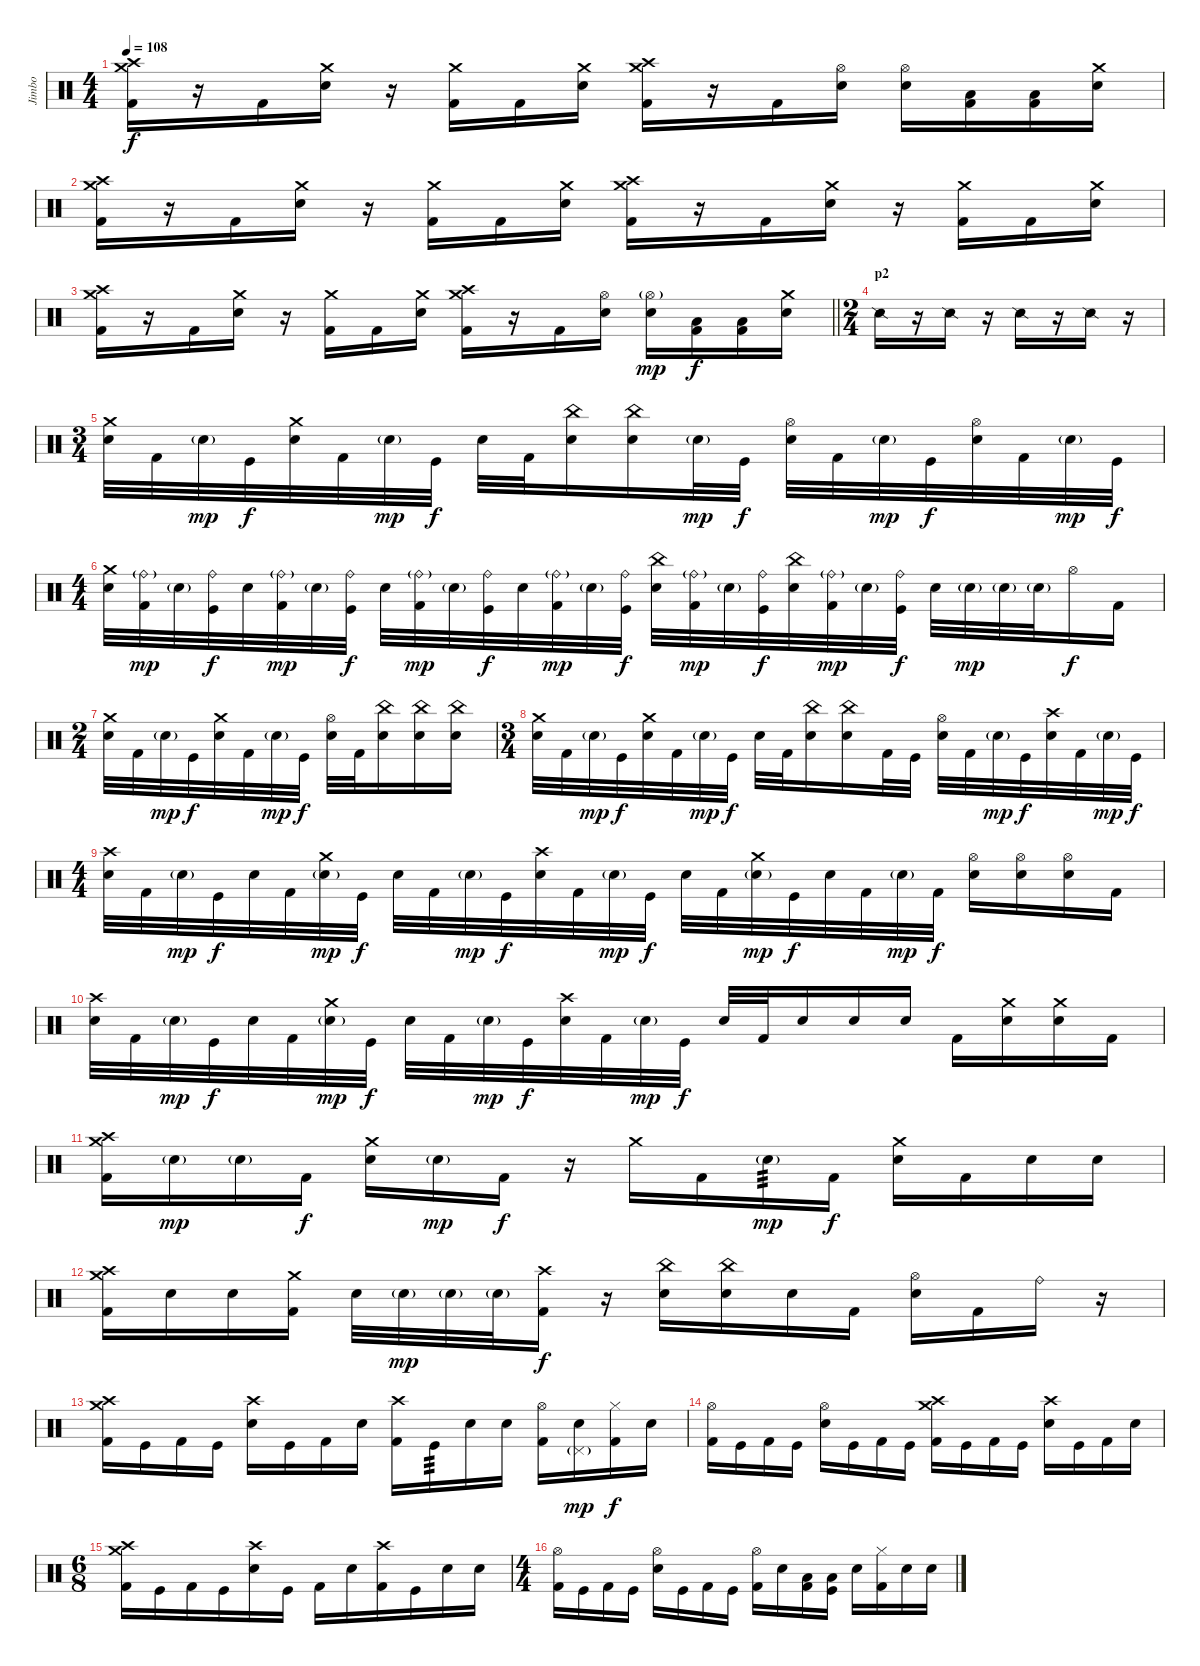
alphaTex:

\track ("Jimbo" "Jimbo") {instrument percussion}
\staff
\articulation defaults
\ts (4 4)
\tempo 108
\clef neutral
\ks c
("Kick (hit) 2" "Crash medium (hit)" "Crash high (hit)").16{dy f} r.16 "Kick (hit) 2".16 ("Electric Snare (hit)" "Crash medium (hit)").16 r.16 ("Kick (hit) 2" "Crash medium (hit)").16 "Kick (hit) 2".16 ("Electric Snare (hit)" "Crash medium (hit)").16 ("Kick (hit) 2" "Crash medium (hit)" "Crash high (hit)").16 r.16 "Kick (hit) 2".16 ("Electric Snare (hit)" "Hi-Hat (open)").16 ("Electric Snare (hit)" "Hi-Hat (open)").16 ("Kick (hit) 2" "Low Tom (hit)").16 ("Kick (hit) 2" "Low Floor Tom (hit)").16 ("Electric Snare (hit)" "Crash medium (hit)").16 |
("Kick (hit) 2" "Crash medium (hit)" "Crash high (hit)").16 r.16 "Kick (hit) 2".16 ("Electric Snare (hit)" "Crash medium (hit)").16 r.16 ("Kick (hit) 2" "Crash medium (hit)").16 "Kick (hit) 2".16 ("Electric Snare (hit)" "Crash medium (hit)").16 ("Kick (hit) 2" "Crash medium (hit)" "Crash high (hit)").16 r.16 "Kick (hit) 2".16 ("Electric Snare (hit)" "Crash medium (hit)").16 r.16 ("Kick (hit) 2" "Crash medium (hit)").16 "Kick (hit) 2".16 ("Electric Snare (hit)" "Crash medium (hit)").16 |
\barLineRight lightlight
("Kick (hit) 2" "Crash medium (hit)" "Crash high (hit)").16 r.16 "Kick (hit) 2".16 ("Electric Snare (hit)" "Crash medium (hit)").16 r.16 ("Kick (hit) 2" "Crash medium (hit)").16 "Kick (hit) 2".16 ("Electric Snare (hit)" "Crash medium (hit)").16 ("Kick (hit) 2" "Crash medium (hit)" "Crash high (hit)").16 r.16 "Kick (hit) 2".16 ("Electric Snare (hit)" "Hi-Hat (open)").16 ("Electric Snare (hit)" "Hi-Hat (open)"{g}).16{dy mp} ("Kick (hit) 2" "Low Tom (hit)").16{dy f} ("Kick (hit) 2" "Low Floor Tom (hit)").16 ("Electric Snare (hit)" "Crash medium (hit)").16 |
\ts (2 4)
\section ("" "p2")
"Snare (side stick) 2".16 r.16 "Snare (side stick) 2".16 r.16 "Snare (side stick) 2".16 r.16 "Snare (side stick) 2".16 r.16 |
\ts (3 4)
("Electric Snare (hit)" "Crash medium (hit)").32 "Kick (hit) 2".32 "Electric Snare (hit)"{g}.32{dy mp} "Kick (hit)".32{dy f} ("Electric Snare (hit)" "Crash medium (hit)").32 "Kick (hit) 2".32 "Electric Snare (hit)"{g}.32{dy mp} "Kick (hit)".32{dy f} "Electric Snare (hit)".32 "Kick (hit) 2".32 ("Electric Snare (hit)" "China (hit)").16 ("Electric Snare (hit)" "China (hit)").16 "Electric Snare (hit)"{g}.32{dy mp} "Kick (hit)".32{dy f} ("Electric Snare (hit)" "Hi-Hat (open)").32 "Kick (hit) 2".32 "Electric Snare (hit)"{g}.32{dy mp} "Kick (hit)".32{dy f} ("Electric Snare (hit)" "Hi-Hat (open)").32 "Kick (hit) 2".32 "Electric Snare (hit)"{g}.32{dy mp} "Kick (hit)".32{dy f} |
\ts (4 4)
("Electric Snare (hit)" "Crash medium (hit)").32 ("Kick (hit) 2" "Ride (bell)"{g}).32{dy mp} "Electric Snare (hit)"{g}.32 ("Kick (hit)" "Ride (bell)").32{dy f} "Electric Snare (hit)".32 ("Kick (hit) 2" "Ride (bell)"{g}).32{dy mp} "Electric Snare (hit)"{g}.32 ("Kick (hit)" "Ride (bell)").32{dy f} "Electric Snare (hit)".32 ("Kick (hit) 2" "Ride (bell)"{g}).32{dy mp} "Electric Snare (hit)"{g}.32 ("Kick (hit)" "Ride (bell)").32{dy f} "Electric Snare (hit)".32 ("Kick (hit) 2" "Ride (bell)"{g}).32{dy mp} "Electric Snare (hit)"{g}.32 ("Kick (hit)" "Ride (bell)").32{dy f} ("Electric Snare (hit)" "China (hit)").32 ("Kick (hit) 2" "Ride (bell)"{g}).32{dy mp} "Electric Snare (hit)"{g}.32 ("Kick (hit)" "Ride (bell)").32{dy f} ("Electric Snare (hit)" "China (hit)").32 ("Kick (hit) 2" "Ride (bell)"{g}).32{dy mp} "Electric Snare (hit)"{g}.32 ("Kick (hit)" "Ride (bell)").32{dy f} "Electric Snare (hit)".32 "Electric Snare (hit)"{g}.32{dy mp} "Electric Snare (hit)"{g}.32 "Electric Snare (hit)"{g}.32 "Hi-Hat (open)".16{dy f} "Kick (hit) 2".16 |
\ts (2 4)
("Electric Snare (hit)" "Crash medium (hit)").32 "Kick (hit) 2".32 "Electric Snare (hit)"{g}.32{dy mp} "Kick (hit)".32{dy f} ("Electric Snare (hit)" "Crash medium (hit)").32 "Kick (hit) 2".32 "Electric Snare (hit)"{g}.32{dy mp} "Kick (hit)".32{dy f} ("Electric Snare (hit)" "Hi-Hat (open)").32 "Kick (hit) 2".32 ("Electric Snare (hit)" "China (hit)").16 ("Electric Snare (hit)" "China (hit)").16 ("Electric Snare (hit)" "China (hit)").16 |
\ts (3 4)
("Electric Snare (hit)" "Crash medium (hit)").32 "Kick (hit) 2".32 "Electric Snare (hit)"{g}.32{dy mp} "Kick (hit)".32{dy f} ("Electric Snare (hit)" "Crash medium (hit)").32 "Kick (hit) 2".32 "Electric Snare (hit)"{g}.32{dy mp} "Kick (hit)".32{dy f} "Electric Snare (hit)".32 "Kick (hit) 2".32 ("Electric Snare (hit)" "China (hit)").16 ("Electric Snare (hit)" "China (hit)").16 "Kick (hit) 2".32 "Kick (hit)".32 ("Electric Snare (hit)" "Hi-Hat (open)").32 "Kick (hit) 2".32 "Electric Snare (hit)"{g}.32{dy mp} "Kick (hit)".32{dy f} ("Electric Snare (hit)" "Crash high (hit)").32 "Kick (hit) 2".32 "Electric Snare (hit)"{g}.32{dy mp} "Kick (hit)".32{dy f} |
\ts (4 4)
("Electric Snare (hit)" "Crash high (hit)").32 "Kick (hit) 2".32 "Electric Snare (hit)"{g}.32{dy mp} "Kick (hit)".32{dy f} "Electric Snare (hit)".32 "Kick (hit) 2".32 ("Electric Snare (hit)"{g} "Crash medium (hit)").32{dy mp} "Kick (hit)".32{dy f} "Electric Snare (hit)".32 "Kick (hit) 2".32 "Electric Snare (hit)"{g}.32{dy mp} "Kick (hit)".32{dy f} ("Electric Snare (hit)" "Crash high (hit)").32 "Kick (hit) 2".32 "Electric Snare (hit)"{g}.32{dy mp} "Kick (hit)".32{dy f} "Electric Snare (hit)".32 "Kick (hit) 2".32 ("Electric Snare (hit)"{g} "Crash medium (hit)").32{dy mp} "Kick (hit)".32{dy f} "Electric Snare (hit)".32 "Kick (hit) 2".32 "Electric Snare (hit)"{g}.32{dy mp} "Kick (hit) 2".32{dy f} ("Electric Snare (hit)" "Hi-Hat (open)").16 ("Electric Snare (hit)" "Hi-Hat (open)").16 ("Electric Snare (hit)" "Hi-Hat (open)").16 "Kick (hit) 2".16 |
("Electric Snare (hit)" "Crash high (hit)").32 "Kick (hit) 2".32 "Electric Snare (hit)"{g}.32{dy mp} "Kick (hit)".32{dy f} "Electric Snare (hit)".32 "Kick (hit) 2".32 ("Electric Snare (hit)"{g} "Crash medium (hit)").32{dy mp} "Kick (hit)".32{dy f} "Electric Snare (hit)".32 "Kick (hit) 2".32 "Electric Snare (hit)"{g}.32{dy mp} "Kick (hit)".32{dy f} ("Electric Snare (hit)" "Crash high (hit)").32 "Kick (hit) 2".32 "Electric Snare (hit)"{g}.32{dy mp} "Kick (hit)".32{dy f} "Electric Snare (hit)".32 "Kick (hit) 2".32 "Electric Snare (hit)".16 "Electric Snare (hit)".16 "Electric Snare (hit)".16 "Kick (hit) 2".16 ("Electric Snare (hit)" "Crash medium (hit)").16 ("Electric Snare (hit)" "Crash medium (hit)").16 "Kick (hit) 2".16 |
("Kick (hit) 2" "Crash medium (hit)" "Crash high (hit)").16 "Electric Snare (hit)"{g}.16{dy mp} "Electric Snare (hit)"{g}.16 "Kick (hit) 2".16{dy f} ("Electric Snare (hit)" "Crash medium (hit)").16 "Electric Snare (hit)"{g}.16{dy mp} "Kick (hit) 2".16{dy f} r.16 "Crash medium (hit)".16 "Kick (hit) 2".16 "Electric Snare (hit)"{g}.16{tp 3 dy mp} "Kick (hit) 2".16{dy f} ("Electric Snare (hit)" "Crash medium (hit)").16 "Kick (hit) 2".16 "Electric Snare (hit)".16 "Electric Snare (hit)".16 |
("Kick (hit) 2" "Crash medium (hit)" "Crash high (hit)").16 "Electric Snare (hit)".16 "Electric Snare (hit)".16 ("Kick (hit) 2" "Crash medium (hit)").16 "Electric Snare (hit)".32 "Electric Snare (hit)"{g}.32{dy mp} "Electric Snare (hit)"{g}.32 "Electric Snare (hit)"{g}.32 ("Kick (hit) 2" "Crash high (hit)").16{dy f} r.16 ("Electric Snare (hit)" "China (hit)").16 ("Electric Snare (hit)" "China (hit)").16 "Electric Snare (hit)".16 "Kick (hit) 2".16 ("Electric Snare (hit)" "Hi-Hat (open)").16 "Kick (hit) 2".16 "Ride (bell)".16 r.16 |
("Kick (hit) 2" "Crash medium (hit)" "Crash high (hit)").16 "Kick (hit)".16 "Kick (hit) 2".16 "Kick (hit)".16 ("Electric Snare (hit)" "Crash high (hit)").16 "Kick (hit)".16 "Kick (hit) 2".16 "Electric Snare (hit)".16 ("Kick (hit) 2" "Crash high (hit)").16 "Kick (hit)".16{tp 3} "Electric Snare (hit)".16 "Electric Snare (hit)".16 ("Kick (hit) 2" "Hi-Hat (open)").16 ("Electric Snare (hit)" "Pedal Hi-Hat (hit)"{g}).16{dy mp} ("Kick (hit) 2" "Hi-Hat (closed)").16{dy f} "Electric Snare (hit)".16 |
("Kick (hit) 2" "Hi-Hat (open)").16 "Kick (hit)".16 "Kick (hit) 2".16 "Kick (hit)".16 ("Electric Snare (hit)" "Hi-Hat (open)").16 "Kick (hit)".16 "Kick (hit) 2".16 "Kick (hit)".16 ("Kick (hit) 2" "Crash medium (hit)" "Crash high (hit)").16 "Kick (hit)".16 "Kick (hit) 2".16 "Kick (hit)".16 ("Electric Snare (hit)" "Crash high (hit)").16 "Kick (hit)".16 "Kick (hit) 2".16 "Electric Snare (hit)".16 |
\ts (6 8)
("Kick (hit) 2" "Crash medium (hit)" "Crash high (hit)").16 "Kick (hit)".16 "Kick (hit) 2".16 "Kick (hit)".16 ("Electric Snare (hit)" "Crash high (hit)").16 "Kick (hit)".16 "Kick (hit) 2".16 "Electric Snare (hit)".16 ("Kick (hit) 2" "Crash high (hit)").16 "Kick (hit)".16 "Electric Snare (hit)".16 "Electric Snare (hit)".16 |
\ts (4 4)
("Kick (hit) 2" "Hi-Hat (open)").16 "Kick (hit)".16 "Kick (hit) 2".16 "Kick (hit)".16 ("Electric Snare (hit)" "Hi-Hat (open)").16 "Kick (hit)".16 "Kick (hit) 2".16 "Kick (hit)".16 ("Kick (hit) 2" "Hi-Hat (open)").16 "Electric Snare (hit)".16 ("Low Tom (hit)" "Kick (hit) 2").16 ("Low Floor Tom (hit)" "Kick (hit)").16 "Electric Snare (hit)".16 ("Kick (hit) 2" "Hi-Hat (closed)").16 "Electric Snare (hit)".16 "Electric Snare (hit)".16
